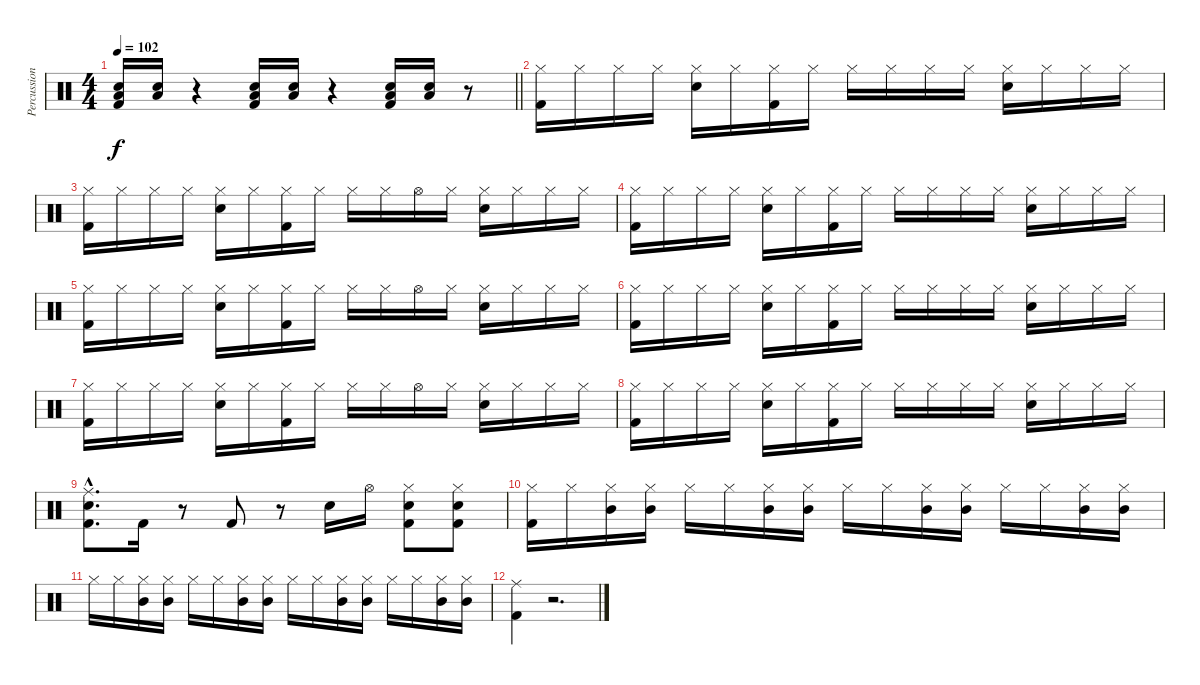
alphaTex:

\track ("Percussions" "Percussion") {instrument percussion}
\staff {score}
\articulation defaults
\ts (4 4)
\tempo 102
\clef neutral
\barLineRight lightlight
\ks c
("Snare (hit) 2" "Low Floor Tom (hit)" "Kick (hit) 2").16{dy f} ("Snare (hit) 2" "Low Floor Tom (hit)").16 r.4 ("Snare (hit) 2" "Low Floor Tom (hit)" "Kick (hit) 2").16 ("Snare (hit) 2" "Low Floor Tom (hit)").16 r.4 ("Snare (hit) 2" "Low Floor Tom (hit)" "Kick (hit) 2").16 ("Snare (hit) 2" "Low Floor Tom (hit)").16 r.8 |
("Hi-Hat (closed)" "Kick (hit) 2").16 "Hi-Hat (closed)".16 "Hi-Hat (closed)".16 "Hi-Hat (closed)".16 ("Snare (hit) 2" "Hi-Hat (closed)").16 "Hi-Hat (closed)".16 ("Hi-Hat (closed)" "Kick (hit) 2").16 "Hi-Hat (closed)".16 "Hi-Hat (closed)".16 "Hi-Hat (closed)".16 "Hi-Hat (closed)".16 "Hi-Hat (closed)".16 ("Snare (hit) 2" "Hi-Hat (closed)").16 "Hi-Hat (closed)".16 "Hi-Hat (closed)".16 "Hi-Hat (closed)".16 |
("Hi-Hat (closed)" "Kick (hit) 2").16 "Hi-Hat (closed)".16 "Hi-Hat (closed)".16 "Hi-Hat (closed)".16 ("Snare (hit) 2" "Hi-Hat (closed)").16 "Hi-Hat (closed)".16 ("Hi-Hat (closed)" "Kick (hit) 2").16 "Hi-Hat (closed)".16 "Hi-Hat (closed)".16 "Hi-Hat (closed)".16 "Hi-Hat (open)".16 "Hi-Hat (closed)".16 ("Snare (hit) 2" "Hi-Hat (closed)").16 "Hi-Hat (closed)".16 "Hi-Hat (closed)".16 "Hi-Hat (closed)".16 |
("Hi-Hat (closed)" "Kick (hit) 2").16 "Hi-Hat (closed)".16 "Hi-Hat (closed)".16 "Hi-Hat (closed)".16 ("Snare (hit) 2" "Hi-Hat (closed)").16 "Hi-Hat (closed)".16 ("Hi-Hat (closed)" "Kick (hit) 2").16 "Hi-Hat (closed)".16 "Hi-Hat (closed)".16 "Hi-Hat (closed)".16 "Hi-Hat (closed)".16 "Hi-Hat (closed)".16 ("Snare (hit) 2" "Hi-Hat (closed)").16 "Hi-Hat (closed)".16 "Hi-Hat (closed)".16 "Hi-Hat (closed)".16 |
("Hi-Hat (closed)" "Kick (hit) 2").16 "Hi-Hat (closed)".16 "Hi-Hat (closed)".16 "Hi-Hat (closed)".16 ("Snare (hit) 2" "Hi-Hat (closed)").16 "Hi-Hat (closed)".16 ("Hi-Hat (closed)" "Kick (hit) 2").16 "Hi-Hat (closed)".16 "Hi-Hat (closed)".16 "Hi-Hat (closed)".16 "Hi-Hat (open)".16 "Hi-Hat (closed)".16 ("Snare (hit) 2" "Hi-Hat (closed)").16 "Hi-Hat (closed)".16 "Hi-Hat (closed)".16 "Hi-Hat (closed)".16 |
("Hi-Hat (closed)" "Kick (hit) 2").16 "Hi-Hat (closed)".16 "Hi-Hat (closed)".16 "Hi-Hat (closed)".16 ("Snare (hit) 2" "Hi-Hat (closed)").16 "Hi-Hat (closed)".16 ("Hi-Hat (closed)" "Kick (hit) 2").16 "Hi-Hat (closed)".16 "Hi-Hat (closed)".16 "Hi-Hat (closed)".16 "Hi-Hat (closed)".16 "Hi-Hat (closed)".16 ("Snare (hit) 2" "Hi-Hat (closed)").16 "Hi-Hat (closed)".16 "Hi-Hat (closed)".16 "Hi-Hat (closed)".16 |
("Hi-Hat (closed)" "Kick (hit) 2").16 "Hi-Hat (closed)".16 "Hi-Hat (closed)".16 "Hi-Hat (closed)".16 ("Snare (hit) 2" "Hi-Hat (closed)").16 "Hi-Hat (closed)".16 ("Hi-Hat (closed)" "Kick (hit) 2").16 "Hi-Hat (closed)".16 "Hi-Hat (closed)".16 "Hi-Hat (closed)".16 "Hi-Hat (open)".16 "Hi-Hat (closed)".16 ("Snare (hit) 2" "Hi-Hat (closed)").16 "Hi-Hat (closed)".16 "Hi-Hat (closed)".16 "Hi-Hat (closed)".16 |
("Hi-Hat (closed)" "Kick (hit) 2").16 "Hi-Hat (closed)".16 "Hi-Hat (closed)".16 "Hi-Hat (closed)".16 ("Snare (hit) 2" "Hi-Hat (closed)").16 "Hi-Hat (closed)".16 ("Hi-Hat (closed)" "Kick (hit) 2").16 "Hi-Hat (closed)".16 "Hi-Hat (closed)".16 "Hi-Hat (closed)".16 "Hi-Hat (closed)".16 "Hi-Hat (closed)".16 ("Snare (hit) 2" "Hi-Hat (closed)").16 "Hi-Hat (closed)".16 "Hi-Hat (closed)".16 "Hi-Hat (closed)".16 |
("Ride (middle)"{hac} "Snare (hit) 2"{hac} "Kick (hit) 2"{hac}).8{d} "Kick (hit) 2".16 r.8 "Kick (hit) 2".8 r.8 "Snare (hit) 2".16 "Hi-Hat (open)".16 ("Hi-Hat (closed)" "Snare (hit) 2" "Kick (hit) 2").8 ("Hi-Hat (closed)" "Snare (hit) 2" "Kick (hit) 2").8 |
("Hi-Hat (closed)" "Kick (hit) 2").16 "Hi-Hat (closed)".16 ("Hi-Hat (closed)" "Mid Tom (hit)").16 ("Hi-Hat (closed)" "Mid Tom (hit)").16 "Hi-Hat (closed)".16 "Hi-Hat (closed)".16 ("Hi-Hat (closed)" "Mid Tom (hit)").16 ("Hi-Hat (closed)" "Mid Tom (hit)").16 "Hi-Hat (closed)".16 "Hi-Hat (closed)".16 ("Hi-Hat (closed)" "Mid Tom (hit)").16 ("Hi-Hat (closed)" "Mid Tom (hit)").16 "Hi-Hat (closed)".16 "Hi-Hat (closed)".16 ("Hi-Hat (closed)" "Mid Tom (hit)").16 ("Hi-Hat (closed)" "Mid Tom (hit)").16 |
"Hi-Hat (closed)".16 "Hi-Hat (closed)".16 ("Hi-Hat (closed)" "Mid Tom (hit)").16 ("Hi-Hat (closed)" "Mid Tom (hit)").16 "Hi-Hat (closed)".16 "Hi-Hat (closed)".16 ("Hi-Hat (closed)" "Mid Tom (hit)").16 ("Hi-Hat (closed)" "Mid Tom (hit)").16 "Hi-Hat (closed)".16 "Hi-Hat (closed)".16 ("Hi-Hat (closed)" "Mid Tom (hit)").16 ("Hi-Hat (closed)" "Mid Tom (hit)").16 "Hi-Hat (closed)".16 "Hi-Hat (closed)".16 ("Hi-Hat (closed)" "Mid Tom (hit)").16 ("Hi-Hat (closed)" "Mid Tom (hit)").16 |
("Ride (middle)" "Kick (hit) 2").4 r.2{d}
